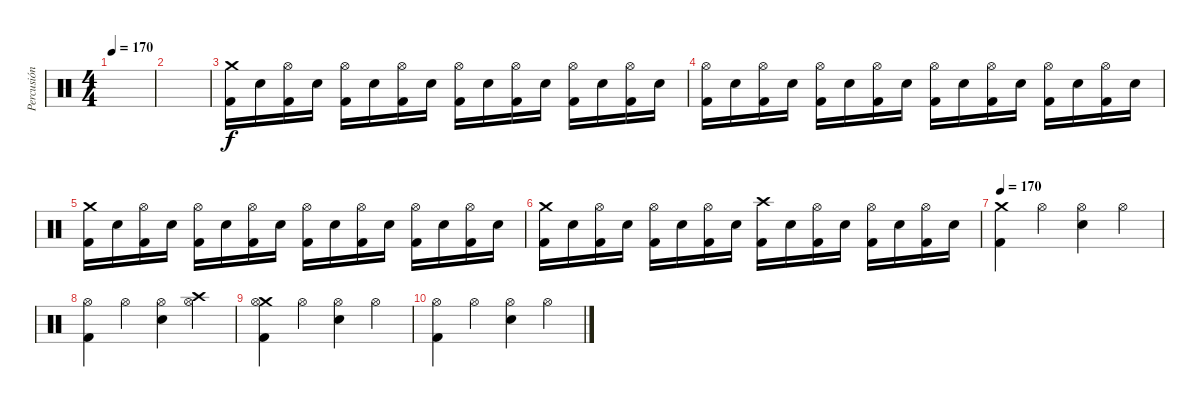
\track ("Percusión" "Percusión") {instrument percussion}
\staff {score}
\articulation defaults
\ts (4 4)
\tempo 170
\clef neutral
\ks c
|
|
("Crash medium (hit)" "Kick (hit) 2").16 "Electric Snare (hit)".16 ("Hi-Hat (open)" "Kick (hit) 2").16 "Electric Snare (hit)".16 ("Hi-Hat (open)" "Kick (hit) 2").16 "Electric Snare (hit)".16 ("Hi-Hat (open)" "Kick (hit) 2").16 "Electric Snare (hit)".16 ("Hi-Hat (open)" "Kick (hit) 2").16 "Electric Snare (hit)".16 ("Hi-Hat (open)" "Kick (hit) 2").16 "Electric Snare (hit)".16 ("Hi-Hat (open)" "Kick (hit) 2").16 "Electric Snare (hit)".16 ("Hi-Hat (open)" "Kick (hit) 2").16 "Electric Snare (hit)".16 |
("Hi-Hat (open)" "Kick (hit) 2").16 "Electric Snare (hit)".16 ("Hi-Hat (open)" "Kick (hit) 2").16 "Electric Snare (hit)".16 ("Hi-Hat (open)" "Kick (hit) 2").16 "Electric Snare (hit)".16 ("Hi-Hat (open)" "Kick (hit) 2").16 "Electric Snare (hit)".16 ("Hi-Hat (open)" "Kick (hit) 2").16 "Electric Snare (hit)".16 ("Hi-Hat (open)" "Kick (hit) 2").16 "Electric Snare (hit)".16 ("Hi-Hat (open)" "Kick (hit) 2").16 "Electric Snare (hit)".16 ("Hi-Hat (open)" "Kick (hit) 2").16 "Electric Snare (hit)".16 |
("Crash medium (hit)" "Kick (hit) 2").16 "Electric Snare (hit)".16 ("Hi-Hat (open)" "Kick (hit) 2").16 "Electric Snare (hit)".16 ("Hi-Hat (open)" "Kick (hit) 2").16 "Electric Snare (hit)".16 ("Hi-Hat (open)" "Kick (hit) 2").16 "Electric Snare (hit)".16 ("Hi-Hat (open)" "Kick (hit) 2").16 "Electric Snare (hit)".16 ("Hi-Hat (open)" "Kick (hit) 2").16 "Electric Snare (hit)".16 ("Hi-Hat (open)" "Kick (hit) 2").16 "Electric Snare (hit)".16 ("Hi-Hat (open)" "Kick (hit) 2").16 "Electric Snare (hit)".16 |
("Crash medium (hit)" "Kick (hit) 2").16 "Electric Snare (hit)".16 ("Hi-Hat (open)" "Kick (hit) 2").16 "Electric Snare (hit)".16 ("Hi-Hat (open)" "Kick (hit) 2").16 "Electric Snare (hit)".16 ("Hi-Hat (open)" "Kick (hit) 2").16 "Electric Snare (hit)".16 ("Crash high (hit)" "Kick (hit) 2").16 "Electric Snare (hit)".16 ("Hi-Hat (open)" "Kick (hit) 2").16 "Electric Snare (hit)".16 ("Hi-Hat (open)" "Kick (hit) 2").16 "Electric Snare (hit)".16 ("Hi-Hat (open)" "Kick (hit) 2").16 "Electric Snare (hit)".16 |
\tempo 170
("Crash medium (hit)" "Kick (hit) 2").4 "Hi-Hat (open)".4 ("Hi-Hat (open)" "Electric Snare (hit)").4 "Hi-Hat (open)".4 |
("Hi-Hat (open)" "Kick (hit) 2").4 "Hi-Hat (open)".4 ("Hi-Hat (open)" "Electric Snare (hit)").4 ("Crash high (hit)" "Hi-Hat (open)").4 |
("Crash medium (hit)" "Hi-Hat (open)" "Kick (hit) 2").4 "Hi-Hat (open)".4 ("Hi-Hat (open)" "Electric Snare (hit)").4 "Hi-Hat (open)".4 |
("Hi-Hat (open)" "Kick (hit) 2").4 "Hi-Hat (open)".4 ("Hi-Hat (open)" "Electric Snare (hit)").4 "Hi-Hat (open)".4
